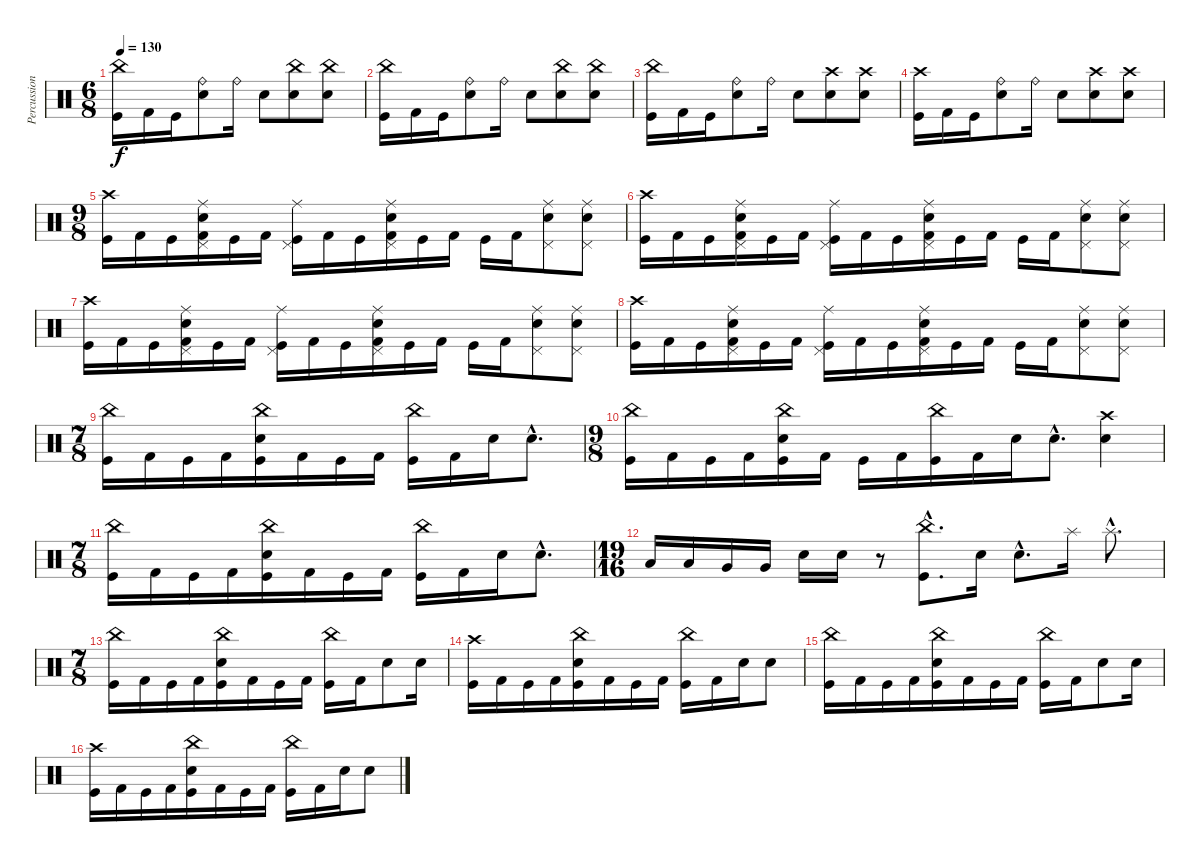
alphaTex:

\track ("Percussion" "Percussion") {instrument percussion}
\staff {score}
\articulation defaults
\ts (6 8)
\tempo 130
\clef neutral
\ks c
("China (hit)" "Kick (hit)").16{dy f} "Kick (hit) 2".16 "Kick (hit)".16 ("Ride (bell)" "Snare (hit) 2").8 "Ride (bell)".16 "Snare (hit) 2".8 ("China (hit)" "Snare (hit) 2").8 ("China (hit)" "Snare (hit) 2").8 |
("China (hit)" "Kick (hit)").16 "Kick (hit) 2".16 "Kick (hit)".16 ("Ride (bell)" "Snare (hit) 2").8 "Ride (bell)".16 "Snare (hit) 2".8 ("China (hit)" "Snare (hit) 2").8 ("China (hit)" "Snare (hit) 2").8 |
("China (hit)" "Kick (hit)").16 "Kick (hit) 2".16 "Kick (hit)".16 ("Ride (bell)" "Snare (hit) 2").8 "Ride (bell)".16 "Snare (hit) 2".8 ("Crash high (hit)" "Snare (hit) 2").8 ("Crash high (hit)" "Snare (hit) 2").8 |
("Crash high (hit)" "Kick (hit)").16 "Kick (hit) 2".16 "Kick (hit)".16 ("Ride (bell)" "Snare (hit) 2").8 "Ride (bell)".16 "Snare (hit) 2".8 ("Crash high (hit)" "Snare (hit) 2").8 ("Crash high (hit)" "Snare (hit) 2").8 |
\ts (9 8)
("Crash high (hit)" "Kick (hit)").16 "Kick (hit) 2".16 "Kick (hit)".16 ("Snare (hit) 2" "Pedal Hi-Hat (hit)" "Ride (middle)" "Kick (hit) 2").16 "Kick (hit)".16 "Kick (hit) 2".16 ("Pedal Hi-Hat (hit)" "Ride (middle)" "Kick (hit)").16 "Kick (hit) 2".16 "Kick (hit)".16 ("Snare (hit) 2" "Pedal Hi-Hat (hit)" "Ride (middle)" "Kick (hit) 2").16 "Kick (hit)".16 "Kick (hit) 2".16 "Kick (hit)".16 "Kick (hit) 2".16 ("Snare (hit) 2" "Ride (middle)" "Pedal Hi-Hat (hit)").8 ("Snare (hit) 2" "Ride (middle)" "Pedal Hi-Hat (hit)").8 |
("Crash high (hit)" "Kick (hit)").16 "Kick (hit) 2".16 "Kick (hit)".16 ("Snare (hit) 2" "Pedal Hi-Hat (hit)" "Ride (middle)" "Kick (hit) 2").16 "Kick (hit)".16 "Kick (hit) 2".16 ("Pedal Hi-Hat (hit)" "Ride (middle)" "Kick (hit)").16 "Kick (hit) 2".16 "Kick (hit)".16 ("Snare (hit) 2" "Pedal Hi-Hat (hit)" "Ride (middle)" "Kick (hit) 2").16 "Kick (hit)".16 "Kick (hit) 2".16 "Kick (hit)".16 "Kick (hit) 2".16 ("Snare (hit) 2" "Ride (middle)" "Pedal Hi-Hat (hit)").8 ("Snare (hit) 2" "Ride (middle)" "Pedal Hi-Hat (hit)").8 |
("Crash high (hit)" "Kick (hit)").16 "Kick (hit) 2".16 "Kick (hit)".16 ("Snare (hit) 2" "Pedal Hi-Hat (hit)" "Ride (middle)" "Kick (hit) 2").16 "Kick (hit)".16 "Kick (hit) 2".16 ("Pedal Hi-Hat (hit)" "Ride (middle)" "Kick (hit)").16 "Kick (hit) 2".16 "Kick (hit)".16 ("Snare (hit) 2" "Pedal Hi-Hat (hit)" "Ride (middle)" "Kick (hit) 2").16 "Kick (hit)".16 "Kick (hit) 2".16 "Kick (hit)".16 "Kick (hit) 2".16 ("Snare (hit) 2" "Ride (middle)" "Pedal Hi-Hat (hit)").8 ("Snare (hit) 2" "Ride (middle)" "Pedal Hi-Hat (hit)").8 |
("Crash high (hit)" "Kick (hit)").16 "Kick (hit) 2".16 "Kick (hit)".16 ("Snare (hit) 2" "Pedal Hi-Hat (hit)" "Ride (middle)" "Kick (hit) 2").16 "Kick (hit)".16 "Kick (hit) 2".16 ("Pedal Hi-Hat (hit)" "Ride (middle)" "Kick (hit)").16 "Kick (hit) 2".16 "Kick (hit)".16 ("Snare (hit) 2" "Pedal Hi-Hat (hit)" "Ride (middle)" "Kick (hit) 2").16 "Kick (hit)".16 "Kick (hit) 2".16 "Kick (hit)".16 "Kick (hit) 2".16 ("Snare (hit) 2" "Ride (middle)" "Pedal Hi-Hat (hit)").8 ("Snare (hit) 2" "Ride (middle)" "Pedal Hi-Hat (hit)").8 |
\ts (7 8)
("China (hit)" "Kick (hit)").16 "Kick (hit) 2".16 "Kick (hit)".16 "Kick (hit) 2".16 ("China (hit)" "Kick (hit)" "Snare (hit) 2").16 "Kick (hit) 2".16 "Kick (hit)".16 "Kick (hit) 2".16 ("China (hit)" "Kick (hit)").16 "Kick (hit) 2".16 "Snare (hit) 2".16 "Snare (hit) 2"{hac}.8{d} |
\ts (9 8)
("China (hit)" "Kick (hit)").16 "Kick (hit) 2".16 "Kick (hit)".16 "Kick (hit) 2".16 ("China (hit)" "Kick (hit)" "Snare (hit) 2").16 "Kick (hit) 2".16 "Kick (hit)".16 "Kick (hit) 2".16 ("China (hit)" "Kick (hit)").16 "Kick (hit) 2".16 "Snare (hit) 2".16 "Snare (hit) 2"{hac}.8{d} ("Crash high (hit)" "Snare (hit) 2").4 |
\ts (7 8)
("China (hit)" "Kick (hit)").16 "Kick (hit) 2".16 "Kick (hit)".16 "Kick (hit) 2".16 ("China (hit)" "Kick (hit)" "Snare (hit) 2").16 "Kick (hit) 2".16 "Kick (hit)".16 "Kick (hit) 2".16 ("China (hit)" "Kick (hit)").16 "Kick (hit) 2".16 "Snare (hit) 2".16 "Snare (hit) 2"{hac}.8{d} |
\ts (19 16)
"Low Tom (hit)".16 "Low Tom (hit)".16 "Very Low Tom (hit)".16 "Very Low Tom (hit)".16 "Snare (hit) 2".16 "Snare (hit) 2".16 r.8 ("China (hit)"{hac} "Kick (hit)"{hac}).8{d} "Snare (hit) 2".16 "Snare (hit) 2"{hac}.8{d} "Splash (hit)".16 "Splash (hit)"{hac}.8{d} |
\ts (7 8)
("China (hit)" "Kick (hit)").16 "Kick (hit) 2".16 "Kick (hit)".16 "Kick (hit) 2".16 ("China (hit)" "Kick (hit)" "Snare (hit) 2").16 "Kick (hit) 2".16 "Kick (hit)".16 "Kick (hit) 2".16 ("China (hit)" "Kick (hit)").16 "Kick (hit) 2".16 "Snare (hit) 2".8 "Snare (hit) 2".16 |
("Crash high (hit)" "Kick (hit)").16 "Kick (hit) 2".16 "Kick (hit)".16 "Kick (hit) 2".16 ("China (hit)" "Kick (hit)" "Snare (hit) 2").16 "Kick (hit) 2".16 "Kick (hit)".16 "Kick (hit) 2".16 ("China (hit)" "Kick (hit)").16 "Kick (hit) 2".16 "Snare (hit) 2".16 "Snare (hit) 2".8 |
("China (hit)" "Kick (hit)").16 "Kick (hit) 2".16 "Kick (hit)".16 "Kick (hit) 2".16 ("China (hit)" "Kick (hit)" "Snare (hit) 2").16 "Kick (hit) 2".16 "Kick (hit)".16 "Kick (hit) 2".16 ("China (hit)" "Kick (hit)").16 "Kick (hit) 2".16 "Snare (hit) 2".8 "Snare (hit) 2".16 |
("Crash high (hit)" "Kick (hit)").16 "Kick (hit) 2".16 "Kick (hit)".16 "Kick (hit) 2".16 ("China (hit)" "Kick (hit)" "Snare (hit) 2").16 "Kick (hit) 2".16 "Kick (hit)".16 "Kick (hit) 2".16 ("China (hit)" "Kick (hit)").16 "Kick (hit) 2".16 "Snare (hit) 2".16 "Snare (hit) 2".8
